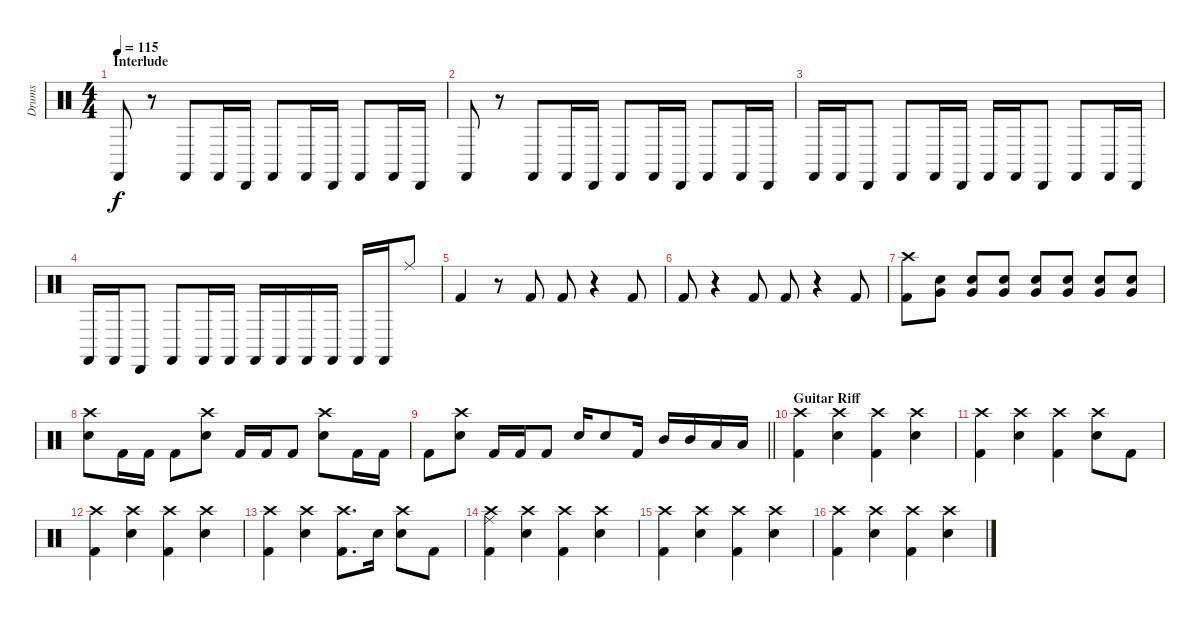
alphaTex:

\track ("Drums" "Drums") {instrument percussion}
\staff {score}
\articulation defaults
\ts (4 4)
\section ("" "Interlude")
\tempo 115
\clef neutral
\ks c "Castanets (hit)".8{dy f}
r.8 "Castanets (hit)".8 "Castanets (hit)".16 "Cabasa (hit)".16 "Castanets (hit)".8 "Castanets (hit)".16 "Cabasa (hit)".16 "Castanets (hit)".8 "Castanets (hit)".16 "Cabasa (hit)".16 |
"Castanets (hit)".8 r.8 "Castanets (hit)".8 "Castanets (hit)".16 "Cabasa (hit)".16 "Castanets (hit)".8 "Castanets (hit)".16 "Cabasa (hit)".16 "Castanets (hit)".8 "Castanets (hit)".16 "Cabasa (hit)".16 |
"Castanets (hit)".16 "Castanets (hit)".16 "Cabasa (hit)".8 "Castanets (hit)".8 "Castanets (hit)".16 "Cabasa (hit)".16 "Castanets (hit)".16 "Castanets (hit)".16 "Cabasa (hit)".8 "Castanets (hit)".8 "Castanets (hit)".16 "Cabasa (hit)".16 |
"Castanets (hit)".16 "Castanets (hit)".16 "Cabasa (hit)".8 "Castanets (hit)".8 "Castanets (hit)".16 "Castanets (hit)".16 "Castanets (hit)".16 "Castanets (hit)".16 "Castanets (hit)".16 "Castanets (hit)".16 "Castanets (hit)".16 "Castanets (hit)".16 "Ride (middle)".8 |
"Kick (hit) 2".4 r.8 "Kick (hit) 2".8 "Kick (hit) 2".8 r.4 "Kick (hit) 2".8 |
"Kick (hit) 2".8 r.4 "Kick (hit) 2".8 "Kick (hit) 2".8 r.4 "Kick (hit) 2".8 |
("Crash high (hit)" "Kick (hit) 2").8 ("Very Low Tom (hit)" "Snare (hit) 2").8 ("Very Low Tom (hit)" "Snare (hit) 2").8 ("Very Low Tom (hit)" "Snare (hit) 2").8 ("Very Low Tom (hit)" "Snare (hit) 2").8 ("Very Low Tom (hit)" "Snare (hit) 2").8 ("Very Low Tom (hit)" "Snare (hit) 2").8 ("Very Low Tom (hit)" "Snare (hit) 2").8 |
("Crash high (hit)" "Snare (hit) 2").8 "Kick (hit) 2".16 "Kick (hit) 2".16 "Kick (hit) 2".8 ("Crash high (hit)" "Snare (hit) 2").8 "Kick (hit) 2".16 "Kick (hit) 2".16 "Kick (hit) 2".8 ("Crash high (hit)" "Snare (hit) 2").8 "Kick (hit) 2".16 "Kick (hit) 2".16 |
\barLineRight lightlight "Kick (hit) 2".8
("Crash high (hit)" "Snare (hit) 2").8 "Kick (hit) 2".16 "Kick (hit) 2".16 "Kick (hit) 2".8 "Snare (hit) 2".16 "Snare (hit) 2".8 "Kick (hit) 2".16 "Mid Tom (hit)".16 "Mid Tom (hit)".16 "Low Tom (hit)".16 "Low Tom (hit)".16 |
\section ("" "Guitar Riff")
("Crash high (hit)" "Kick (hit) 2").4 ("Crash high (hit)" "Snare (hit) 2").4 ("Crash high (hit)" "Kick (hit) 2").4 ("Crash high (hit)" "Snare (hit) 2").4 |
("Crash high (hit)" "Kick (hit) 2").4 ("Crash high (hit)" "Snare (hit) 2").4 ("Crash high (hit)" "Kick (hit) 2").4 ("Crash high (hit)" "Snare (hit) 2").8 "Kick (hit) 2".8 |
("Crash high (hit)" "Kick (hit) 2").4 ("Crash high (hit)" "Snare (hit) 2").4 ("Crash high (hit)" "Kick (hit) 2").4 ("Crash high (hit)" "Snare (hit) 2").4 |
("Crash high (hit)" "Kick (hit) 2").4 ("Crash high (hit)" "Snare (hit) 2").4 ("Crash high (hit)" "Kick (hit) 2").8{d} "Snare (hit) 2".16 ("Crash high (hit)" "Snare (hit) 2").8 "Kick (hit) 2".8 |
("Crash high (hit)" "Ride (middle)" "Kick (hit) 2").4 ("Crash high (hit)" "Snare (hit) 2").4 ("Crash high (hit)" "Kick (hit) 2").4 ("Crash high (hit)" "Snare (hit) 2").4 |
("Crash high (hit)" "Kick (hit) 2").4 ("Crash high (hit)" "Snare (hit) 2").4 ("Crash high (hit)" "Kick (hit) 2").4 ("Crash high (hit)" "Snare (hit) 2").4 |
("Crash high (hit)" "Kick (hit) 2").4 ("Crash high (hit)" "Snare (hit) 2").4 ("Crash high (hit)" "Kick (hit) 2").4 ("Crash high (hit)" "Snare (hit) 2").4
